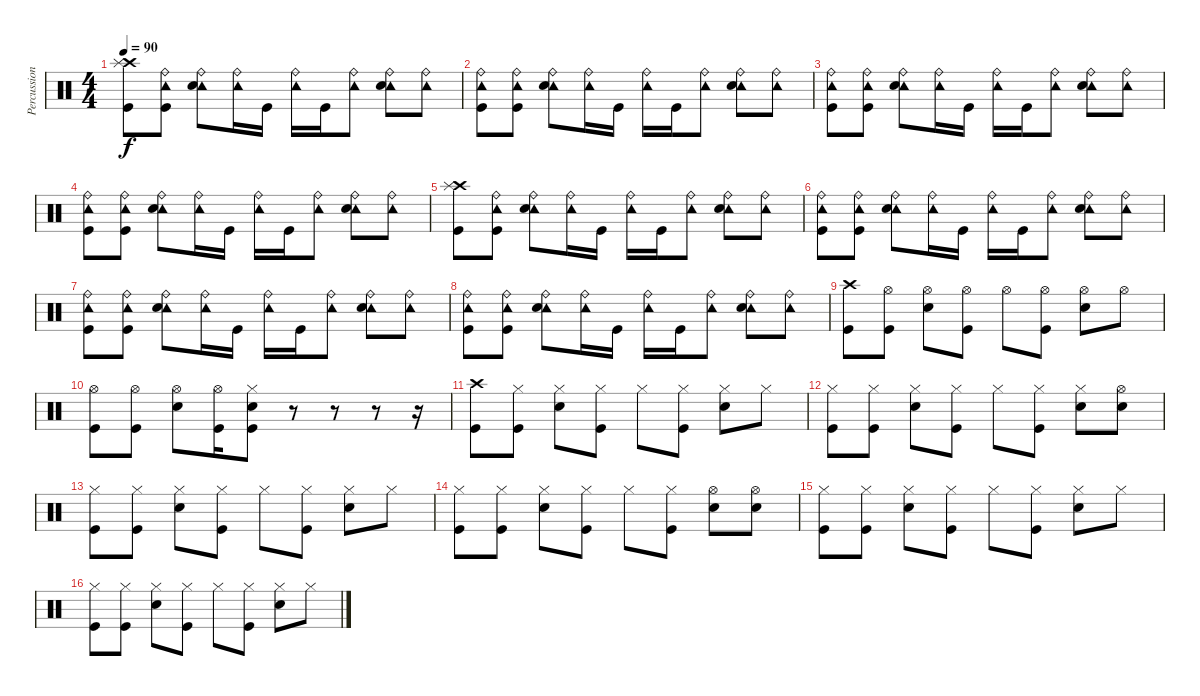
\track ("Percussion" "Percussion") {instrument percussion}
\staff {score}
\articulation defaults
\ts (4 4)
\tempo 90
\clef neutral
\ks c
("Crash high (hit)" "Splash (hit)" "Kick (hit)").8{dy f} ("Tambourine (hit)" "Ride (bell)" "Kick (hit)").8 ("Tambourine (hit)" "Ride (bell)" "Electric Snare (hit)").8 ("Tambourine (hit)" "Ride (bell)").16 "Kick (hit)".16 ("Tambourine (hit)" "Ride (bell)").16 "Kick (hit)".16 ("Tambourine (hit)" "Ride (bell)").8 ("Tambourine (hit)" "Ride (bell)" "Electric Snare (hit)").8 ("Tambourine (hit)" "Ride (bell)").8 |
("Tambourine (hit)" "Ride (bell)" "Kick (hit)").8 ("Tambourine (hit)" "Ride (bell)" "Kick (hit)").8 ("Tambourine (hit)" "Ride (bell)" "Electric Snare (hit)").8 ("Tambourine (hit)" "Ride (bell)").16 "Kick (hit)".16 ("Tambourine (hit)" "Ride (bell)").16 "Kick (hit)".16 ("Tambourine (hit)" "Ride (bell)").8 ("Tambourine (hit)" "Ride (bell)" "Electric Snare (hit)").8 ("Tambourine (hit)" "Ride (bell)").8 |
("Tambourine (hit)" "Ride (bell)" "Kick (hit)").8 ("Tambourine (hit)" "Ride (bell)" "Kick (hit)").8 ("Tambourine (hit)" "Ride (bell)" "Electric Snare (hit)").8 ("Tambourine (hit)" "Ride (bell)").16 "Kick (hit)".16 ("Tambourine (hit)" "Ride (bell)").16 "Kick (hit)".16 ("Tambourine (hit)" "Ride (bell)").8 ("Tambourine (hit)" "Ride (bell)" "Electric Snare (hit)").8 ("Tambourine (hit)" "Ride (bell)").8 |
("Tambourine (hit)" "Ride (bell)" "Kick (hit)").8 ("Tambourine (hit)" "Ride (bell)" "Kick (hit)").8 ("Tambourine (hit)" "Ride (bell)" "Electric Snare (hit)").8 ("Tambourine (hit)" "Ride (bell)").16 "Kick (hit)".16 ("Tambourine (hit)" "Ride (bell)").16 "Kick (hit)".16 ("Tambourine (hit)" "Ride (bell)").8 ("Tambourine (hit)" "Ride (bell)" "Electric Snare (hit)").8 ("Tambourine (hit)" "Ride (bell)").8 |
("Crash high (hit)" "Splash (hit)" "Kick (hit)").8 ("Tambourine (hit)" "Ride (bell)" "Kick (hit)").8 ("Tambourine (hit)" "Ride (bell)" "Electric Snare (hit)").8 ("Tambourine (hit)" "Ride (bell)").16 "Kick (hit)".16 ("Tambourine (hit)" "Ride (bell)").16 "Kick (hit)".16 ("Tambourine (hit)" "Ride (bell)").8 ("Tambourine (hit)" "Ride (bell)" "Electric Snare (hit)").8 ("Tambourine (hit)" "Ride (bell)").8 |
("Tambourine (hit)" "Ride (bell)" "Kick (hit)").8 ("Tambourine (hit)" "Ride (bell)" "Kick (hit)").8 ("Tambourine (hit)" "Ride (bell)" "Electric Snare (hit)").8 ("Tambourine (hit)" "Ride (bell)").16 "Kick (hit)".16 ("Tambourine (hit)" "Ride (bell)").16 "Kick (hit)".16 ("Tambourine (hit)" "Ride (bell)").8 ("Tambourine (hit)" "Ride (bell)" "Electric Snare (hit)").8 ("Tambourine (hit)" "Ride (bell)").8 |
("Tambourine (hit)" "Ride (bell)" "Kick (hit)").8 ("Tambourine (hit)" "Ride (bell)" "Kick (hit)").8 ("Tambourine (hit)" "Ride (bell)" "Electric Snare (hit)").8 ("Tambourine (hit)" "Ride (bell)").16 "Kick (hit)".16 ("Tambourine (hit)" "Ride (bell)").16 "Kick (hit)".16 ("Tambourine (hit)" "Ride (bell)").8 ("Tambourine (hit)" "Ride (bell)" "Electric Snare (hit)").8 ("Tambourine (hit)" "Ride (bell)").8 |
("Tambourine (hit)" "Ride (bell)" "Kick (hit)").8 ("Tambourine (hit)" "Ride (bell)" "Kick (hit)").8 ("Tambourine (hit)" "Ride (bell)" "Electric Snare (hit)").8 ("Tambourine (hit)" "Ride (bell)").16 "Kick (hit)".16 ("Tambourine (hit)" "Ride (bell)").16 "Kick (hit)".16 ("Tambourine (hit)" "Ride (bell)").8 ("Tambourine (hit)" "Ride (bell)" "Electric Snare (hit)").8 ("Tambourine (hit)" "Ride (bell)").8 |
("Crash high (hit)" "Kick (hit)").8 ("Hi-Hat (open)" "Kick (hit)").8 ("Hi-Hat (open)" "Electric Snare (hit)").8 ("Hi-Hat (open)" "Kick (hit)").8 "Hi-Hat (open)".8 ("Hi-Hat (open)" "Kick (hit)").8 ("Hi-Hat (open)" "Electric Snare (hit)").8 "Hi-Hat (open)".8 |
("Hi-Hat (open)" "Kick (hit)").8 ("Hi-Hat (open)" "Kick (hit)").8 ("Hi-Hat (open)" "Electric Snare (hit)").8 ("Hi-Hat (open)" "Kick (hit)").16 ("Electric Snare (hit)" "Hi-Hat (closed)" "Kick (hit)").8 r.8 r.8 r.8 r.16 |
("Crash high (hit)" "Kick (hit)").8 ("Hi-Hat (closed)" "Kick (hit)").8 ("Hi-Hat (closed)" "Electric Snare (hit)").8 ("Hi-Hat (closed)" "Kick (hit)").8 "Hi-Hat (closed)".8 ("Hi-Hat (closed)" "Kick (hit)").8 ("Hi-Hat (closed)" "Electric Snare (hit)").8 "Hi-Hat (closed)".8 |
("Hi-Hat (closed)" "Kick (hit)").8 ("Hi-Hat (closed)" "Kick (hit)").8 ("Hi-Hat (closed)" "Electric Snare (hit)").8 ("Hi-Hat (closed)" "Kick (hit)").8 "Hi-Hat (closed)".8 ("Hi-Hat (closed)" "Kick (hit)").8 ("Hi-Hat (closed)" "Electric Snare (hit)").8 ("Hi-Hat (open)" "Electric Snare (hit)").8 |
("Hi-Hat (closed)" "Kick (hit)").8 ("Hi-Hat (closed)" "Kick (hit)").8 ("Hi-Hat (closed)" "Electric Snare (hit)").8 ("Hi-Hat (closed)" "Kick (hit)").8 "Hi-Hat (closed)".8 ("Hi-Hat (closed)" "Kick (hit)").8 ("Hi-Hat (closed)" "Electric Snare (hit)").8 "Hi-Hat (closed)".8 |
("Hi-Hat (closed)" "Kick (hit)").8 ("Hi-Hat (closed)" "Kick (hit)").8 ("Hi-Hat (closed)" "Electric Snare (hit)").8 ("Hi-Hat (closed)" "Kick (hit)").8 "Hi-Hat (closed)".8 ("Hi-Hat (closed)" "Kick (hit)").8 ("Hi-Hat (open)" "Electric Snare (hit)").8 ("Hi-Hat (open)" "Electric Snare (hit)").8 |
("Hi-Hat (closed)" "Kick (hit)").8 ("Hi-Hat (closed)" "Kick (hit)").8 ("Hi-Hat (closed)" "Electric Snare (hit)").8 ("Hi-Hat (closed)" "Kick (hit)").8 "Hi-Hat (closed)".8 ("Hi-Hat (closed)" "Kick (hit)").8 ("Hi-Hat (closed)" "Electric Snare (hit)").8 "Hi-Hat (closed)".8 |
("Hi-Hat (closed)" "Kick (hit)").8 ("Hi-Hat (closed)" "Kick (hit)").8 ("Hi-Hat (closed)" "Electric Snare (hit)").8 ("Hi-Hat (closed)" "Kick (hit)").8 "Hi-Hat (closed)".8 ("Hi-Hat (closed)" "Kick (hit)").8 ("Hi-Hat (closed)" "Electric Snare (hit)").8 "Hi-Hat (closed)".8
